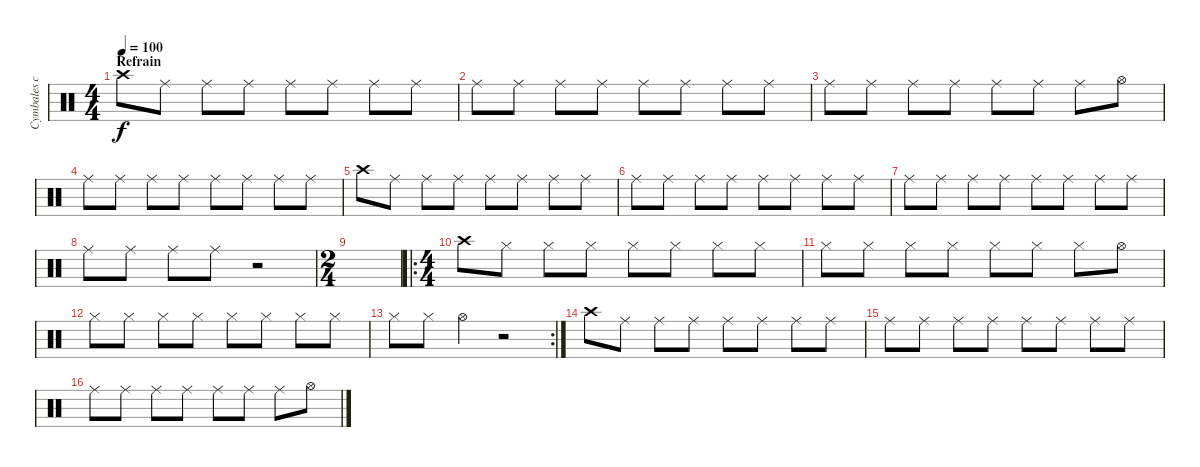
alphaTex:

\track ("Cymbales charlestone" "Cymbales c") {instrument percussion}
\staff {score}
\articulation defaults
\ts (4 4)
\section ("" "Refrain")
\tempo 100
\clef neutral
\ks c "Crash high (hit)".8{dy f} "Ride (middle)".8 "Ride (middle)".8 "Ride (middle)".8 "Ride (middle)".8 "Ride (middle)".8 "Ride (middle)".8 "Ride (middle)".8
|
"Ride (middle)".8 "Ride (middle)".8 "Ride (middle)".8 "Ride (middle)".8 "Ride (middle)".8 "Ride (middle)".8 "Ride (middle)".8 "Ride (middle)".8 |
"Ride (middle)".8 "Ride (middle)".8 "Ride (middle)".8 "Ride (middle)".8 "Ride (middle)".8 "Ride (middle)".8 "Ride (middle)".8 "Hi-Hat (open)".8 |
"Ride (middle)".8 "Ride (middle)".8 "Ride (middle)".8 "Ride (middle)".8 "Ride (middle)".8 "Ride (middle)".8 "Ride (middle)".8 "Ride (middle)".8 |
"Crash high (hit)".8 "Ride (middle)".8 "Ride (middle)".8 "Ride (middle)".8 "Ride (middle)".8 "Ride (middle)".8 "Ride (middle)".8 "Ride (middle)".8 |
"Ride (middle)".8 "Ride (middle)".8 "Ride (middle)".8 "Ride (middle)".8 "Ride (middle)".8 "Ride (middle)".8 "Ride (middle)".8 "Ride (middle)".8 |
"Ride (middle)".8 "Ride (middle)".8 "Ride (middle)".8 "Ride (middle)".8 "Ride (middle)".8 "Ride (middle)".8 "Ride (middle)".8 "Ride (middle)".8 |
"Ride (middle)".8 "Ride (middle)".8 "Ride (middle)".8 "Ride (middle)".8 r.2 |
\ts (2 4)
|
\ro
\ts (4 4)
"Crash high (hit)".8 "Hi-Hat (closed)".8 "Hi-Hat (closed)".8 "Hi-Hat (closed)".8 "Hi-Hat (closed)".8 "Hi-Hat (closed)".8 "Hi-Hat (closed)".8 "Hi-Hat (closed)".8 |
"Hi-Hat (closed)".8 "Hi-Hat (closed)".8 "Hi-Hat (closed)".8 "Hi-Hat (closed)".8 "Hi-Hat (closed)".8 "Hi-Hat (closed)".8 "Hi-Hat (closed)".8 "Hi-Hat (open)".8 |
"Hi-Hat (closed)".8 "Hi-Hat (closed)".8 "Hi-Hat (closed)".8 "Hi-Hat (closed)".8 "Hi-Hat (closed)".8 "Hi-Hat (closed)".8 "Hi-Hat (closed)".8 "Hi-Hat (closed)".8 |
\rc 2 "Hi-Hat (closed)".8 "Hi-Hat (closed)".8 "Hi-Hat (open)".4
r.2 |
"Crash high (hit)".8 "Ride (middle)".8 "Ride (middle)".8 "Ride (middle)".8 "Ride (middle)".8 "Ride (middle)".8 "Ride (middle)".8 "Ride (middle)".8 |
"Ride (middle)".8 "Ride (middle)".8 "Ride (middle)".8 "Ride (middle)".8 "Ride (middle)".8 "Ride (middle)".8 "Ride (middle)".8 "Ride (middle)".8 |
"Ride (middle)".8 "Ride (middle)".8 "Ride (middle)".8 "Ride (middle)".8 "Ride (middle)".8 "Ride (middle)".8 "Ride (middle)".8 "Hi-Hat (open)".8
